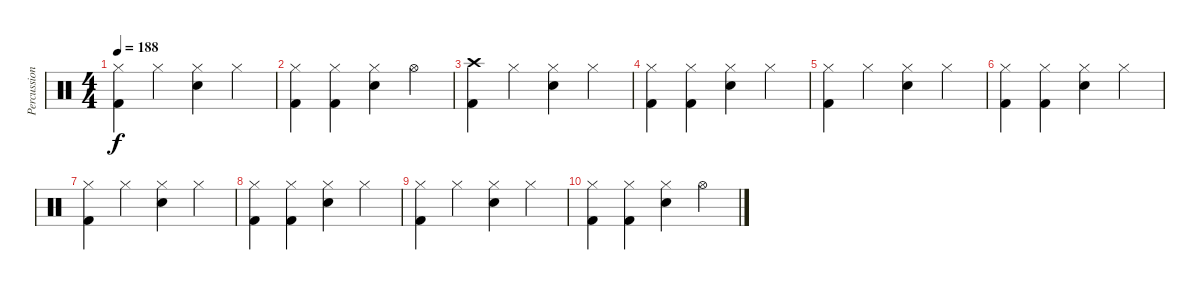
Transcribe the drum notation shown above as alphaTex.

\track ("Percussion" "Percussion") {instrument percussion}
\staff {score}
\articulation defaults
\ts (4 4)
\tempo 188
\clef neutral
\ks c
("Hi-Hat (closed)" "Kick (hit) 2").4{dy f} "Hi-Hat (closed)".4 ("Hi-Hat (closed)" "Snare (hit) 2").4 "Hi-Hat (closed)".4 |
("Hi-Hat (closed)" "Kick (hit) 2").4 ("Hi-Hat (closed)" "Kick (hit) 2").4 ("Hi-Hat (closed)" "Snare (hit) 2").4 "Hi-Hat (open)".4 |
("Crash high (hit)" "Kick (hit) 2").4 "Hi-Hat (closed)".4 ("Hi-Hat (closed)" "Snare (hit) 2").4 "Hi-Hat (closed)".4 |
("Hi-Hat (closed)" "Kick (hit) 2").4 ("Hi-Hat (closed)" "Kick (hit) 2").4 ("Hi-Hat (closed)" "Snare (hit) 2").4 "Hi-Hat (closed)".4 |
("Hi-Hat (closed)" "Kick (hit) 2").4 "Hi-Hat (closed)".4 ("Hi-Hat (closed)" "Snare (hit) 2").4 "Hi-Hat (closed)".4 |
("Hi-Hat (closed)" "Kick (hit) 2").4 ("Hi-Hat (closed)" "Kick (hit) 2").4 ("Hi-Hat (closed)" "Snare (hit) 2").4 "Hi-Hat (closed)".4 |
("Hi-Hat (closed)" "Kick (hit) 2").4{volume 0} "Hi-Hat (closed)".4 ("Hi-Hat (closed)" "Snare (hit) 2").4 "Hi-Hat (closed)".4 |
("Hi-Hat (closed)" "Kick (hit) 2").4 ("Hi-Hat (closed)" "Kick (hit) 2").4 ("Hi-Hat (closed)" "Snare (hit) 2").4 "Hi-Hat (closed)".4 |
("Hi-Hat (closed)" "Kick (hit) 2").4 "Hi-Hat (closed)".4 ("Hi-Hat (closed)" "Snare (hit) 2").4 "Hi-Hat (closed)".4 |
("Hi-Hat (closed)" "Kick (hit) 2").4 ("Hi-Hat (closed)" "Kick (hit) 2").4 ("Hi-Hat (closed)" "Snare (hit) 2").4 "Hi-Hat (open)".4
